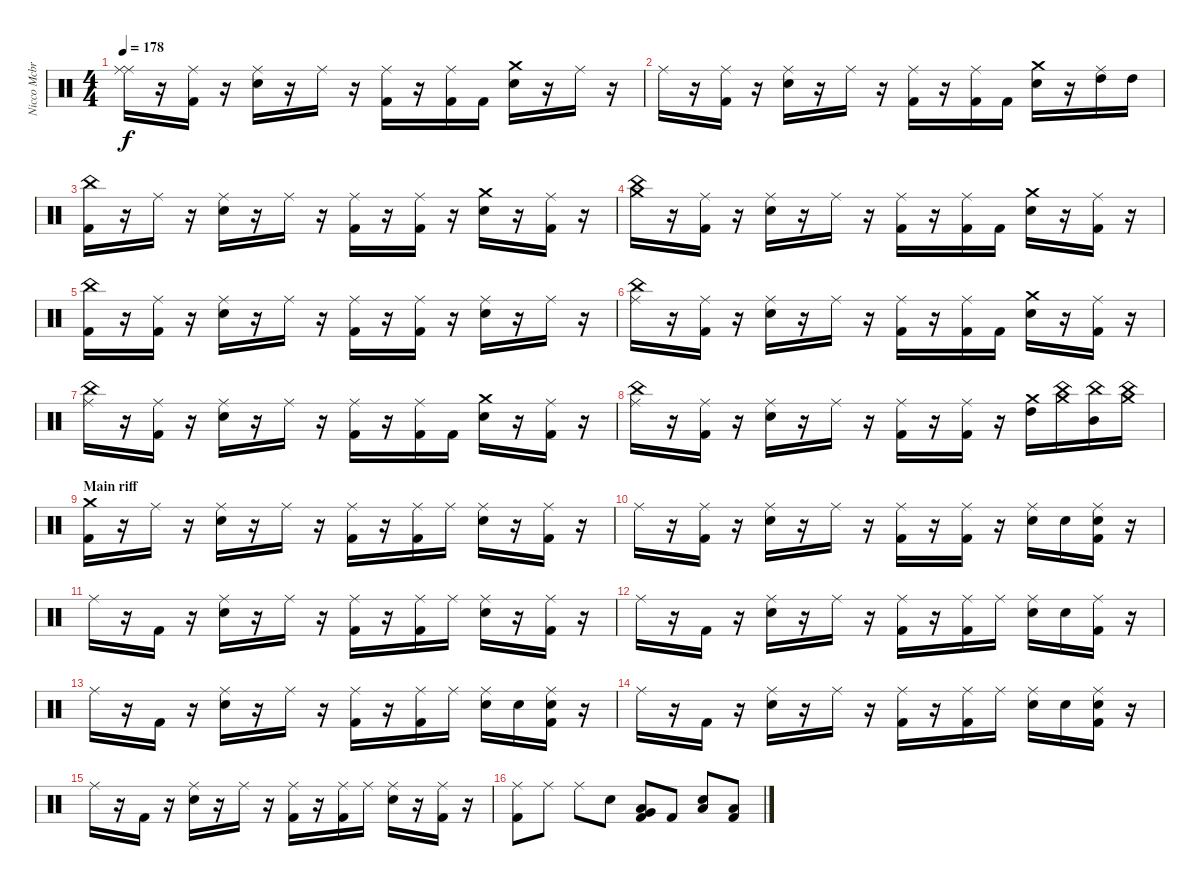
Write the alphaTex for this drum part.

\track ("Nicco Mcbrian - Drums" "Nicco Mcbr") {instrument percussion}
\staff {score}
\articulation defaults
\ts (4 4)
\tempo 178
\clef neutral
\ks c
("Ride (middle)" "Ride (middle)").16{dy f} r.16 ("Ride (middle)" "Kick (hit) 2").16 r.16 ("Ride (middle)" "Snare (hit) 2").16 r.16 "Ride (middle)".16 r.16 ("Ride (middle)" "Kick (hit) 2").16 r.16 ("Ride (middle)" "Kick (hit) 2").16 "Kick (hit) 2".16 ("Crash medium (hit)" "Snare (hit) 2").16 r.16 "Ride (middle)".16 r.16 |
"Ride (middle)".16 r.16 ("Ride (middle)" "Kick (hit) 2").16 r.16 ("Ride (middle)" "Snare (hit) 2").16 r.16 "Ride (middle)".16 r.16 ("Ride (middle)" "Kick (hit) 2").16 r.16 ("Ride (middle)" "Kick (hit) 2").16 "Kick (hit) 2".16 ("Crash medium (hit)" "Snare (hit) 2").16 r.16 ("Ride (middle)" "High Tom (hit)").16 "High Tom (hit)".16 |
("China (hit)" "Kick (hit) 2").16 r.16 "Ride (middle)".16 r.16 ("Ride (middle)" "Snare (hit) 2").16 r.16 "Ride (middle)".16 r.16 ("Ride (middle)" "Kick (hit) 2").16 r.16 ("Ride (middle)" "Kick (hit) 2").16 r.16 ("Crash medium (hit)" "Snare (hit) 2").16 r.16 ("Ride (middle)" "Kick (hit) 2").16 r.16 |
("Crash medium (hit)" "China (hit)").16 r.16 ("Ride (middle)" "Kick (hit) 2").16 r.16 ("Ride (middle)" "Snare (hit) 2").16 r.16 "Ride (middle)".16 r.16 ("Ride (middle)" "Kick (hit) 2").16 r.16 ("Ride (middle)" "Kick (hit) 2").16 "Kick (hit) 2".16 ("Crash medium (hit)" "Snare (hit) 2").16 r.16 ("Ride (middle)" "Kick (hit) 2").16 r.16 |
("China (hit)" "Kick (hit) 2").16 r.16 ("Ride (middle)" "Kick (hit) 2").16 r.16 ("Ride (middle)" "Snare (hit) 2").16 r.16 "Ride (middle)".16 r.16 ("Ride (middle)" "Kick (hit) 2").16 r.16 ("Ride (middle)" "Kick (hit) 2").16 r.16 ("Ride (middle)" "Snare (hit) 2").16 r.16 "Ride (middle)".16 r.16 |
("Ride (middle)" "China (hit)").16 r.16 ("Ride (middle)" "Kick (hit) 2").16 r.16 ("Ride (middle)" "Snare (hit) 2").16 r.16 "Ride (middle)".16 r.16 ("Ride (middle)" "Kick (hit) 2").16 r.16 ("Ride (middle)" "Kick (hit) 2").16 "Kick (hit) 2".16 ("Crash medium (hit)" "Snare (hit) 2").16 r.16 ("Ride (middle)" "Kick (hit) 2").16 r.16 |
("Ride (middle)" "China (hit)").16 r.16 ("Ride (middle)" "Kick (hit) 2").16 r.16 ("Ride (middle)" "Snare (hit) 2").16 r.16 "Ride (middle)".16 r.16 ("Ride (middle)" "Kick (hit) 2").16 r.16 ("Ride (middle)" "Kick (hit) 2").16 "Kick (hit) 2".16 ("Crash medium (hit)" "Snare (hit) 2").16 r.16 ("Ride (middle)" "Kick (hit) 2").16 r.16 |
("Ride (middle)" "China (hit)").16 r.16 ("Ride (middle)" "Kick (hit) 2").16 r.16 ("Ride (middle)" "Snare (hit) 2").16 r.16 "Ride (middle)".16 r.16 ("Ride (middle)" "Kick (hit) 2").16 r.16 ("Ride (middle)" "Kick (hit) 2").16 r.16 ("Crash medium (hit)" "High Tom (hit)").16 ("Crash medium (hit)" "China (hit)").16 ("China (hit)" "Mid Tom (hit)").16 ("Crash medium (hit)" "China (hit)").16 |
\section ("" "Main riff")
("Crash medium (hit)" "Kick (hit) 2").16 r.16 "Ride (middle)".16 r.16 ("Ride (middle)" "Snare (hit) 2").16 r.16 "Ride (middle)".16 r.16 ("Ride (middle)" "Kick (hit) 2").16 r.16 ("Ride (middle)" "Kick (hit) 2").16 "Ride (middle)".16 ("Ride (middle)" "Snare (hit) 2").16 r.16 ("Ride (middle)" "Kick (hit) 2").16 r.16 |
"Ride (middle)".16 r.16 ("Ride (middle)" "Kick (hit) 2").16 r.16 ("Ride (middle)" "Snare (hit) 2").16 r.16 "Ride (middle)".16 r.16 ("Ride (middle)" "Kick (hit) 2").16 r.16 ("Ride (middle)" "Kick (hit) 2").16 r.16 ("Ride (middle)" "Snare (hit) 2").16 "Snare (hit) 2".16 ("Ride (middle)" "Snare (hit) 2" "Kick (hit) 2").16 r.16 |
"Ride (middle)".16 r.16 "Kick (hit) 2".16 r.16 ("Ride (middle)" "Snare (hit) 2").16 r.16 "Ride (middle)".16 r.16 ("Ride (middle)" "Kick (hit) 2").16 r.16 ("Ride (middle)" "Kick (hit) 2").16 "Ride (middle)".16 ("Ride (middle)" "Snare (hit) 2").16 r.16 ("Ride (middle)" "Kick (hit) 2").16 r.16 |
"Ride (middle)".16 r.16 "Kick (hit) 2".16 r.16 ("Ride (middle)" "Snare (hit) 2").16 r.16 "Ride (middle)".16 r.16 ("Ride (middle)" "Kick (hit) 2").16 r.16 ("Ride (middle)" "Kick (hit) 2").16 "Ride (middle)".16 ("Ride (middle)" "Snare (hit) 2").16 "Snare (hit) 2".16 ("Ride (middle)" "Kick (hit) 2").16 r.16 |
"Ride (middle)".16 r.16 "Kick (hit) 2".16 r.16 ("Ride (middle)" "Snare (hit) 2").16 r.16 "Ride (middle)".16 r.16 ("Ride (middle)" "Kick (hit) 2").16 r.16 ("Ride (middle)" "Kick (hit) 2").16 "Ride (middle)".16 ("Ride (middle)" "Snare (hit) 2").16 "Snare (hit) 2".16 ("Ride (middle)" "Snare (hit) 2" "Kick (hit) 2").16 r.16 |
"Ride (middle)".16 r.16 "Kick (hit) 2".16 r.16 ("Ride (middle)" "Snare (hit) 2").16 r.16 "Ride (middle)".16 r.16 ("Ride (middle)" "Kick (hit) 2").16 r.16 ("Ride (middle)" "Kick (hit) 2").16 "Ride (middle)".16 ("Ride (middle)" "Snare (hit) 2").16 "Snare (hit) 2".16 ("Ride (middle)" "Snare (hit) 2" "Kick (hit) 2").16 r.16 |
"Ride (middle)".16 r.16 "Kick (hit) 2".16 r.16 ("Ride (middle)" "Snare (hit) 2").16 r.16 "Ride (middle)".16 r.16 ("Ride (middle)" "Kick (hit) 2").16 r.16 ("Ride (middle)" "Kick (hit) 2").16 "Ride (middle)".16 ("Ride (middle)" "Snare (hit) 2").16 r.16 ("Ride (middle)" "Kick (hit) 2").16 r.16 |
("Ride (middle)" "Kick (hit) 2").8 "Ride (middle)".8 "Ride (middle)".8 "Snare (hit) 2".8 ("Very Low Tom (hit)" "Kick (hit) 2" "Low Tom (hit)").8 "Kick (hit) 2".8 ("Snare (hit) 2" "Low Tom (hit)").8 ("Low Tom (hit)" "Kick (hit) 2").8
